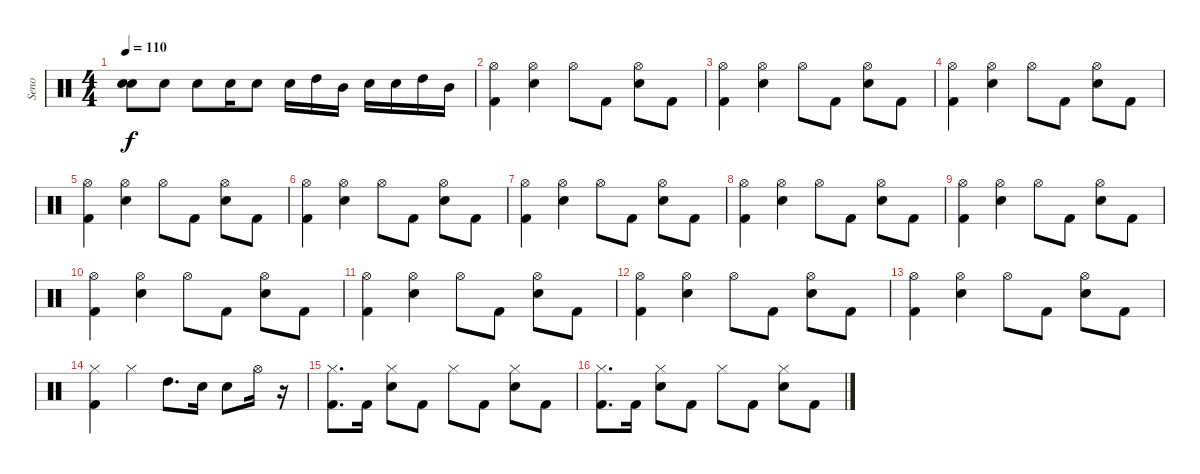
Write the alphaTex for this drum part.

\track ("Seno" "Seno") {instrument percussion}
\staff {score}
\articulation defaults
\ts (4 4)
\tempo 110
\clef neutral
\ks c
("Snare (hit) 2" "Snare (hit) 2").8{bd 480 dy f} "Snare (hit) 2".8 "Snare (hit) 2".8 "Snare (hit) 2".16 "Snare (hit) 2".8 "Snare (hit) 2".16 "High Tom (hit)".16 "Mid Tom (hit)".16 "Snare (hit) 2".16 "Snare (hit) 2".16 "High Tom (hit)".16 "Mid Tom (hit)".16 |
("Kick (hit) 2" "Hi-Hat (open)").4 ("Snare (hit) 2" "Hi-Hat (open)").4 "Hi-Hat (open)".8 "Kick (hit) 2".8 ("Hi-Hat (open)" "Snare (hit) 2").8 "Kick (hit) 2".8 |
("Kick (hit) 2" "Hi-Hat (open)").4 ("Snare (hit) 2" "Hi-Hat (open)").4 "Hi-Hat (open)".8 "Kick (hit) 2".8 ("Hi-Hat (open)" "Snare (hit) 2").8 "Kick (hit) 2".8 |
("Kick (hit) 2" "Hi-Hat (open)").4 ("Snare (hit) 2" "Hi-Hat (open)").4 "Hi-Hat (open)".8 "Kick (hit) 2".8 ("Hi-Hat (open)" "Snare (hit) 2").8 "Kick (hit) 2".8 |
("Kick (hit) 2" "Hi-Hat (open)").4 ("Snare (hit) 2" "Hi-Hat (open)").4 "Hi-Hat (open)".8 "Kick (hit) 2".8 ("Hi-Hat (open)" "Snare (hit) 2").8 "Kick (hit) 2".8 |
("Kick (hit) 2" "Hi-Hat (open)").4 ("Snare (hit) 2" "Hi-Hat (open)").4 "Hi-Hat (open)".8 "Kick (hit) 2".8 ("Hi-Hat (open)" "Snare (hit) 2").8 "Kick (hit) 2".8 |
("Kick (hit) 2" "Hi-Hat (open)").4 ("Snare (hit) 2" "Hi-Hat (open)").4 "Hi-Hat (open)".8 "Kick (hit) 2".8 ("Hi-Hat (open)" "Snare (hit) 2").8 "Kick (hit) 2".8 |
("Kick (hit) 2" "Hi-Hat (open)").4 ("Snare (hit) 2" "Hi-Hat (open)").4 "Hi-Hat (open)".8 "Kick (hit) 2".8 ("Hi-Hat (open)" "Snare (hit) 2").8 "Kick (hit) 2".8 |
("Kick (hit) 2" "Hi-Hat (open)").4 ("Snare (hit) 2" "Hi-Hat (open)").4 "Hi-Hat (open)".8 "Kick (hit) 2".8 ("Hi-Hat (open)" "Snare (hit) 2").8 "Kick (hit) 2".8 |
("Kick (hit) 2" "Hi-Hat (open)").4 ("Snare (hit) 2" "Hi-Hat (open)").4 "Hi-Hat (open)".8 "Kick (hit) 2".8 ("Hi-Hat (open)" "Snare (hit) 2").8 "Kick (hit) 2".8 |
("Kick (hit) 2" "Hi-Hat (open)").4 ("Snare (hit) 2" "Hi-Hat (open)").4 "Hi-Hat (open)".8 "Kick (hit) 2".8 ("Hi-Hat (open)" "Snare (hit) 2").8 "Kick (hit) 2".8 |
("Kick (hit) 2" "Hi-Hat (open)").4 ("Snare (hit) 2" "Hi-Hat (open)").4 "Hi-Hat (open)".8 "Kick (hit) 2".8 ("Hi-Hat (open)" "Snare (hit) 2").8 "Kick (hit) 2".8 |
("Kick (hit) 2" "Hi-Hat (open)").4 ("Snare (hit) 2" "Hi-Hat (open)").4 "Hi-Hat (open)".8 "Kick (hit) 2".8 ("Hi-Hat (open)" "Snare (hit) 2").8 "Kick (hit) 2".8 |
("Kick (hit) 2" "Hi-Hat (closed)").4 "Hi-Hat (closed)".4 "High Tom (hit)".8{d} "Snare (hit) 2".16 "Snare (hit) 2".8 "Hi-Hat (open)".16 r.16 |
("Hi-Hat (closed)" "Kick (hit) 2").8{d} "Kick (hit) 2".16 ("Snare (hit) 2" "Hi-Hat (closed)").8 "Kick (hit) 2".8 "Hi-Hat (closed)".8 "Kick (hit) 2".8 ("Snare (hit) 2" "Hi-Hat (closed)").8 "Kick (hit) 2".8 |
("Hi-Hat (closed)" "Kick (hit) 2").8{d} "Kick (hit) 2".16 ("Snare (hit) 2" "Hi-Hat (closed)").8 "Kick (hit) 2".8 "Hi-Hat (closed)".8 "Kick (hit) 2".8 ("Snare (hit) 2" "Hi-Hat (closed)").8 "Kick (hit) 2".8
